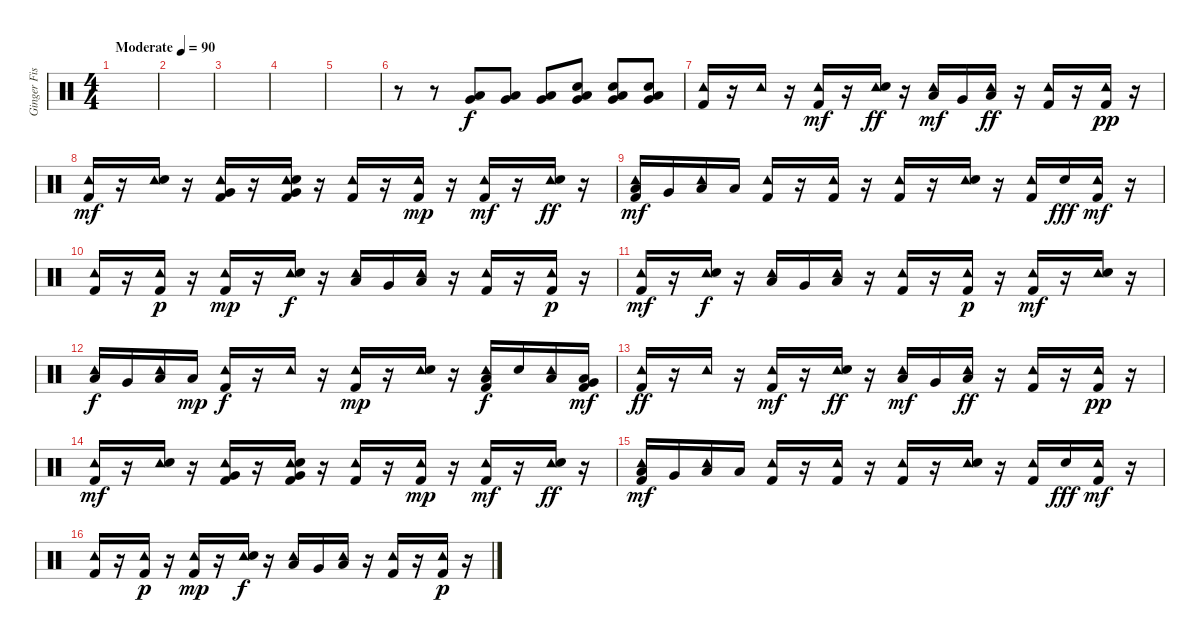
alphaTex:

\track ("Ginger Fish" "Ginger Fis") {instrument percussion}
\staff {score}
\articulation defaults
\ts (4 4)
\tempo (90 "Moderate")
\clef neutral
\ks c
|
|
|
|
|
r.8 r.8 ("Very Low Tom (hit)" "Low Floor Tom (hit)").8 ("Very Low Tom (hit)" "Low Floor Tom (hit)").8 ("Very Low Tom (hit)" "Low Floor Tom (hit)").8 ("Electric Snare (hit)" "Very Low Tom (hit)" "Low Floor Tom (hit)").8 ("Electric Snare (hit)" "Very Low Tom (hit)" "Low Floor Tom (hit)").8 ("Electric Snare (hit)" "Very Low Tom (hit)" "Low Floor Tom (hit)").8 |
("Tambourine (hit)" "Kick (hit) 2").16 r.16 "Tambourine (hit)".16 r.16 ("Tambourine (hit)" "Kick (hit) 2").16{dy mf} r.16 ("Tambourine (hit)" "Electric Snare (hit)").16{dy ff} r.16 ("Tambourine (hit)" "Low Floor Tom (hit)").16{dy mf} "Very Low Tom (hit)".16 ("Tambourine (hit)" "Low Floor Tom (hit)").16{dy ff} r.16 ("Tambourine (hit)" "Kick (hit) 2").16 r.16 ("Tambourine (hit)" "Kick (hit) 2").16{dy pp} r.16 |
("Tambourine (hit)" "Kick (hit) 2").16{dy mf} r.16 ("Tambourine (hit)" "Electric Snare (hit)").16 r.16 ("Tambourine (hit)" "Very Low Tom (hit)" "Kick (hit) 2").16 r.16 ("Tambourine (hit)" "Very Low Tom (hit)" "Electric Snare (hit)" "Kick (hit) 2").16 r.16 ("Tambourine (hit)" "Kick (hit) 2").16 r.16 ("Tambourine (hit)" "Kick (hit) 2").16{dy mp} r.16 ("Tambourine (hit)" "Kick (hit) 2").16{dy mf} r.16 ("Tambourine (hit)" "Electric Snare (hit)").16{dy ff} r.16 |
("Tambourine (hit)" "Kick (hit) 2" "Low Floor Tom (hit)").16{dy mf} "Very Low Tom (hit)".16 ("Tambourine (hit)" "Low Floor Tom (hit)").16 "Low Tom (hit)".16 ("Tambourine (hit)" "Kick (hit) 2").16 r.16 ("Tambourine (hit)" "Kick (hit) 2").16 r.16 ("Tambourine (hit)" "Kick (hit) 2").16 r.16 ("Tambourine (hit)" "Electric Snare (hit)").16 r.16 ("Tambourine (hit)" "Kick (hit) 2").16 "Electric Snare (hit)".16{dy fff} ("Tambourine (hit)" "Kick (hit) 2").16{dy mf} r.16 |
("Tambourine (hit)" "Kick (hit) 2").16 r.16 ("Tambourine (hit)" "Kick (hit) 2").16{dy p} r.16 ("Tambourine (hit)" "Kick (hit) 2").16{dy mp} r.16 ("Tambourine (hit)" "Electric Snare (hit)").16{dy f} r.16 ("Tambourine (hit)" "Low Floor Tom (hit)").16 "Very Low Tom (hit)".16 ("Tambourine (hit)" "Low Floor Tom (hit)").16 r.16 ("Tambourine (hit)" "Kick (hit) 2").16 r.16 ("Tambourine (hit)" "Kick (hit) 2").16{dy p} r.16 |
("Tambourine (hit)" "Kick (hit) 2").16{dy mf} r.16 ("Tambourine (hit)" "Electric Snare (hit)").16{dy f} r.16 ("Tambourine (hit)" "Low Floor Tom (hit)").16 "Very Low Tom (hit)".16 ("Tambourine (hit)" "Low Floor Tom (hit)").16 r.16 ("Tambourine (hit)" "Kick (hit) 2").16 r.16 ("Tambourine (hit)" "Kick (hit) 2").16{dy p} r.16 ("Tambourine (hit)" "Kick (hit) 2").16{dy mf} r.16 ("Tambourine (hit)" "Electric Snare (hit)").16 r.16 |
("Tambourine (hit)" "Low Floor Tom (hit)").16{dy f} "Very Low Tom (hit)".16 ("Tambourine (hit)" "Low Floor Tom (hit)").16 "Low Tom (hit)".16{dy mp} ("Tambourine (hit)" "Kick (hit) 2").16{dy f} r.16 "Tambourine (hit)".16 r.16 ("Tambourine (hit)" "Kick (hit) 2").16{dy mp} r.16 ("Tambourine (hit)" "Electric Snare (hit)").16 r.16 ("Tambourine (hit)" "Kick (hit) 2" "Low Floor Tom (hit)").16{dy f} "Electric Snare (hit)".16 ("Tambourine (hit)" "Low Floor Tom (hit)").16 ("Kick (hit) 2" "Low Tom (hit)" "Very Low Tom (hit)").16{dy mf} |
("Tambourine (hit)" "Kick (hit) 2").16{dy ff} r.16 "Tambourine (hit)".16 r.16 ("Tambourine (hit)" "Kick (hit) 2").16{dy mf} r.16 ("Tambourine (hit)" "Electric Snare (hit)").16{dy ff} r.16 ("Tambourine (hit)" "Low Floor Tom (hit)").16{dy mf} "Very Low Tom (hit)".16 ("Tambourine (hit)" "Low Floor Tom (hit)").16{dy ff} r.16 ("Tambourine (hit)" "Kick (hit) 2").16 r.16 ("Tambourine (hit)" "Kick (hit) 2").16{dy pp} r.16 |
("Tambourine (hit)" "Kick (hit) 2").16{dy mf} r.16 ("Tambourine (hit)" "Electric Snare (hit)").16 r.16 ("Tambourine (hit)" "Very Low Tom (hit)" "Kick (hit) 2").16 r.16 ("Tambourine (hit)" "Very Low Tom (hit)" "Electric Snare (hit)" "Kick (hit) 2").16 r.16 ("Tambourine (hit)" "Kick (hit) 2").16 r.16 ("Tambourine (hit)" "Kick (hit) 2").16{dy mp} r.16 ("Tambourine (hit)" "Kick (hit) 2").16{dy mf} r.16 ("Tambourine (hit)" "Electric Snare (hit)").16{dy ff} r.16 |
("Tambourine (hit)" "Kick (hit) 2" "Low Floor Tom (hit)").16{dy mf} "Very Low Tom (hit)".16 ("Tambourine (hit)" "Low Floor Tom (hit)").16 "Low Tom (hit)".16 ("Tambourine (hit)" "Kick (hit) 2").16 r.16 ("Tambourine (hit)" "Kick (hit) 2").16 r.16 ("Tambourine (hit)" "Kick (hit) 2").16 r.16 ("Tambourine (hit)" "Electric Snare (hit)").16 r.16 ("Tambourine (hit)" "Kick (hit) 2").16 "Electric Snare (hit)".16{dy fff} ("Tambourine (hit)" "Kick (hit) 2").16{dy mf} r.16 |
("Tambourine (hit)" "Kick (hit) 2").16 r.16 ("Tambourine (hit)" "Kick (hit) 2").16{dy p} r.16 ("Tambourine (hit)" "Kick (hit) 2").16{dy mp} r.16 ("Tambourine (hit)" "Electric Snare (hit)").16{dy f} r.16 ("Tambourine (hit)" "Low Floor Tom (hit)").16 "Very Low Tom (hit)".16 ("Tambourine (hit)" "Low Floor Tom (hit)").16 r.16 ("Tambourine (hit)" "Kick (hit) 2").16 r.16 ("Tambourine (hit)" "Kick (hit) 2").16{dy p} r.16
